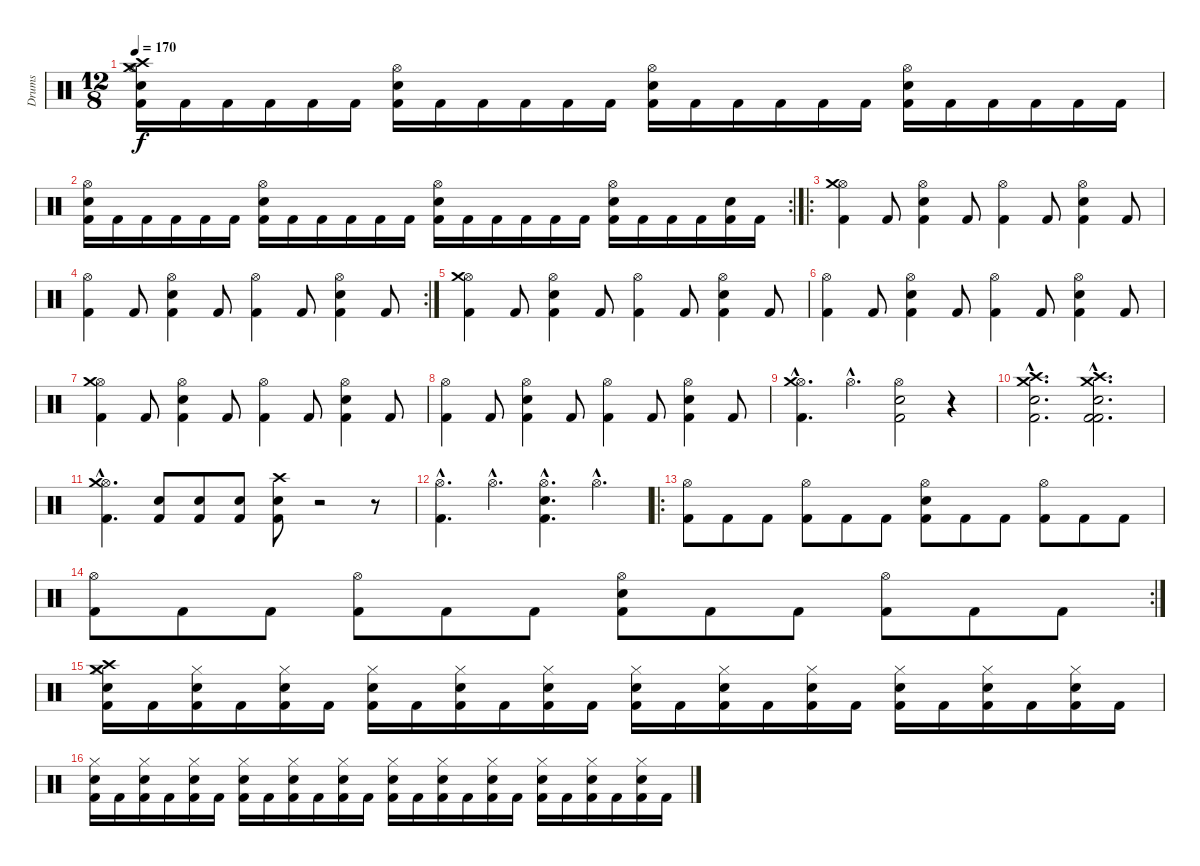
\track ("Drums" "Drums") {instrument percussion}
\staff {score}
\articulation defaults
\ts (12 8)
\tempo 170
\clef neutral
\ks c
("Kick (hit) 2" "Electric Snare (hit)" "Crash medium (hit)" "Hi-Hat (open)" "Crash high (hit)").16{dy f} "Kick (hit) 2".16 "Kick (hit) 2".16 "Kick (hit) 2".16 "Kick (hit) 2".16 "Kick (hit) 2".16 ("Kick (hit) 2" "Electric Snare (hit)" "Hi-Hat (open)").16 "Kick (hit) 2".16 "Kick (hit) 2".16 "Kick (hit) 2".16 "Kick (hit) 2".16 "Kick (hit) 2".16 ("Kick (hit) 2" "Electric Snare (hit)" "Hi-Hat (open)").16 "Kick (hit) 2".16 "Kick (hit) 2".16 "Kick (hit) 2".16 "Kick (hit) 2".16 "Kick (hit) 2".16 ("Kick (hit) 2" "Electric Snare (hit)" "Hi-Hat (open)").16 "Kick (hit) 2".16 "Kick (hit) 2".16 "Kick (hit) 2".16 "Kick (hit) 2".16 "Kick (hit) 2".16 |
\rc 2
("Kick (hit) 2" "Electric Snare (hit)" "Hi-Hat (open)").16 "Kick (hit) 2".16 "Kick (hit) 2".16 "Kick (hit) 2".16 "Kick (hit) 2".16 "Kick (hit) 2".16 ("Kick (hit) 2" "Electric Snare (hit)" "Hi-Hat (open)").16 "Kick (hit) 2".16 "Kick (hit) 2".16 "Kick (hit) 2".16 "Kick (hit) 2".16 "Kick (hit) 2".16 ("Kick (hit) 2" "Electric Snare (hit)" "Hi-Hat (open)").16 "Kick (hit) 2".16 "Kick (hit) 2".16 "Kick (hit) 2".16 "Kick (hit) 2".16 "Kick (hit) 2".16 ("Kick (hit) 2" "Electric Snare (hit)" "Hi-Hat (open)").16 "Kick (hit) 2".16 "Kick (hit) 2".16 "Kick (hit) 2".16 ("Kick (hit) 2" "Electric Snare (hit)").16 "Kick (hit) 2".16 |
\ro
("Kick (hit) 2" "Hi-Hat (open)" "Crash medium (hit)").4 "Kick (hit) 2".8 ("Kick (hit) 2" "Electric Snare (hit)" "Hi-Hat (open)").4 "Kick (hit) 2".8 ("Kick (hit) 2" "Hi-Hat (open)").4 "Kick (hit) 2".8 ("Kick (hit) 2" "Electric Snare (hit)" "Hi-Hat (open)").4 "Kick (hit) 2".8 |
\rc 2
("Kick (hit) 2" "Hi-Hat (open)").4 "Kick (hit) 2".8 ("Kick (hit) 2" "Electric Snare (hit)" "Hi-Hat (open)").4 "Kick (hit) 2".8 ("Kick (hit) 2" "Hi-Hat (open)").4 "Kick (hit) 2".8 ("Kick (hit) 2" "Electric Snare (hit)" "Hi-Hat (open)").4 "Kick (hit) 2".8 |
("Kick (hit) 2" "Hi-Hat (open)" "Crash medium (hit)").4 "Kick (hit) 2".8 ("Kick (hit) 2" "Electric Snare (hit)" "Hi-Hat (open)").4 "Kick (hit) 2".8 ("Kick (hit) 2" "Hi-Hat (open)").4 "Kick (hit) 2".8 ("Kick (hit) 2" "Electric Snare (hit)" "Hi-Hat (open)").4 "Kick (hit) 2".8 |
("Kick (hit) 2" "Hi-Hat (open)").4 "Kick (hit) 2".8 ("Kick (hit) 2" "Electric Snare (hit)" "Hi-Hat (open)").4 "Kick (hit) 2".8 ("Kick (hit) 2" "Hi-Hat (open)").4 "Kick (hit) 2".8 ("Kick (hit) 2" "Electric Snare (hit)" "Hi-Hat (open)").4 "Kick (hit) 2".8 |
("Kick (hit) 2" "Hi-Hat (open)" "Crash medium (hit)").4 "Kick (hit) 2".8 ("Kick (hit) 2" "Electric Snare (hit)" "Hi-Hat (open)").4 "Kick (hit) 2".8 ("Kick (hit) 2" "Hi-Hat (open)").4 "Kick (hit) 2".8 ("Kick (hit) 2" "Electric Snare (hit)" "Hi-Hat (open)").4 "Kick (hit) 2".8 |
("Kick (hit) 2" "Hi-Hat (open)").4 "Kick (hit) 2".8 ("Kick (hit) 2" "Electric Snare (hit)" "Hi-Hat (open)").4 "Kick (hit) 2".8 ("Kick (hit) 2" "Hi-Hat (open)").4 "Kick (hit) 2".8 ("Kick (hit) 2" "Electric Snare (hit)" "Hi-Hat (open)").4 "Kick (hit) 2".8 |
("Kick (hit) 2"{hac} "Hi-Hat (open)"{hac} "Crash medium (hit)"{hac}).4{d} "Hi-Hat (open)"{hac}.4{d} ("Kick (hit) 2" "Electric Snare (hit)" "Hi-Hat (open)").2 r.4 |
("Kick (hit) 2"{hac} "Crash medium (hit)"{hac} "Electric Snare (hit)"{hac} "Crash high (hit)"{hac}).2{d} ("Kick (hit) 2"{hac} "Crash medium (hit)"{hac} "Electric Snare (hit)"{hac} "Crash high (hit)"{hac} "Kick (hit) 2"{hac}).2{d} |
("Kick (hit) 2"{hac} "Hi-Hat (open)"{hac} "Crash medium (hit)"{hac}).4{d} ("Kick (hit) 2" "Electric Snare (hit)").8 ("Kick (hit) 2" "Electric Snare (hit)").8 ("Kick (hit) 2" "Electric Snare (hit)").8 ("Kick (hit) 2" "Electric Snare (hit)" "Crash high (hit)").8 r.2 r.8 |
("Kick (hit) 2"{hac} "Hi-Hat (open)"{hac}).4{d} "Hi-Hat (open)"{hac}.4{d} ("Kick (hit) 2"{hac} "Hi-Hat (open)"{hac} "Electric Snare (hit)"{hac}).4{d} "Hi-Hat (open)"{hac}.4{d} |
\ro
("Kick (hit) 2" "Hi-Hat (open)").8 "Kick (hit) 2".8 "Kick (hit) 2".8 ("Kick (hit) 2" "Hi-Hat (open)").8 "Kick (hit) 2".8 "Kick (hit) 2".8 ("Kick (hit) 2" "Electric Snare (hit)" "Hi-Hat (open)").8 "Kick (hit) 2".8 "Kick (hit) 2".8 ("Kick (hit) 2" "Hi-Hat (open)").8 "Kick (hit) 2".8 "Kick (hit) 2".8 |
\rc 2
("Kick (hit) 2" "Hi-Hat (open)").8 "Kick (hit) 2".8 "Kick (hit) 2".8 ("Kick (hit) 2" "Hi-Hat (open)").8 "Kick (hit) 2".8 "Kick (hit) 2".8 ("Kick (hit) 2" "Electric Snare (hit)" "Hi-Hat (open)").8 "Kick (hit) 2".8 "Kick (hit) 2".8 ("Kick (hit) 2" "Hi-Hat (open)").8 "Kick (hit) 2".8 "Kick (hit) 2".8 |
("Kick (hit) 2" "Electric Snare (hit)" "Hi-Hat (closed)" "Crash high (hit)" "Crash medium (hit)").16 "Kick (hit) 2".16 ("Kick (hit) 2" "Electric Snare (hit)" "Hi-Hat (closed)").16 "Kick (hit) 2".16 ("Kick (hit) 2" "Electric Snare (hit)" "Hi-Hat (closed)").16 "Kick (hit) 2".16 ("Kick (hit) 2" "Electric Snare (hit)" "Hi-Hat (closed)").16 "Kick (hit) 2".16 ("Kick (hit) 2" "Electric Snare (hit)" "Hi-Hat (closed)").16 "Kick (hit) 2".16 ("Kick (hit) 2" "Electric Snare (hit)" "Hi-Hat (closed)").16 "Kick (hit) 2".16 ("Kick (hit) 2" "Electric Snare (hit)" "Hi-Hat (closed)").16 "Kick (hit) 2".16 ("Kick (hit) 2" "Electric Snare (hit)" "Hi-Hat (closed)").16 "Kick (hit) 2".16 ("Kick (hit) 2" "Electric Snare (hit)" "Hi-Hat (closed)").16 "Kick (hit) 2".16 ("Kick (hit) 2" "Electric Snare (hit)" "Hi-Hat (closed)").16 "Kick (hit) 2".16 ("Kick (hit) 2" "Electric Snare (hit)" "Hi-Hat (closed)").16 "Kick (hit) 2".16 ("Kick (hit) 2" "Electric Snare (hit)" "Hi-Hat (closed)").16 "Kick (hit) 2".16 |
("Kick (hit) 2" "Electric Snare (hit)" "Hi-Hat (closed)").16 "Kick (hit) 2".16 ("Kick (hit) 2" "Electric Snare (hit)" "Hi-Hat (closed)").16 "Kick (hit) 2".16 ("Kick (hit) 2" "Electric Snare (hit)" "Hi-Hat (closed)").16 "Kick (hit) 2".16 ("Kick (hit) 2" "Electric Snare (hit)" "Hi-Hat (closed)").16 "Kick (hit) 2".16 ("Kick (hit) 2" "Electric Snare (hit)" "Hi-Hat (closed)").16 "Kick (hit) 2".16 ("Kick (hit) 2" "Electric Snare (hit)" "Hi-Hat (closed)").16 "Kick (hit) 2".16 ("Kick (hit) 2" "Electric Snare (hit)" "Hi-Hat (closed)").16 "Kick (hit) 2".16 ("Kick (hit) 2" "Electric Snare (hit)" "Hi-Hat (closed)").16 "Kick (hit) 2".16 ("Kick (hit) 2" "Electric Snare (hit)" "Hi-Hat (closed)").16 "Kick (hit) 2".16 ("Kick (hit) 2" "Electric Snare (hit)" "Hi-Hat (closed)").16 "Kick (hit) 2".16 ("Kick (hit) 2" "Electric Snare (hit)" "Hi-Hat (closed)").16 "Kick (hit) 2".16 ("Kick (hit) 2" "Electric Snare (hit)" "Hi-Hat (closed)").16 "Kick (hit) 2".16
